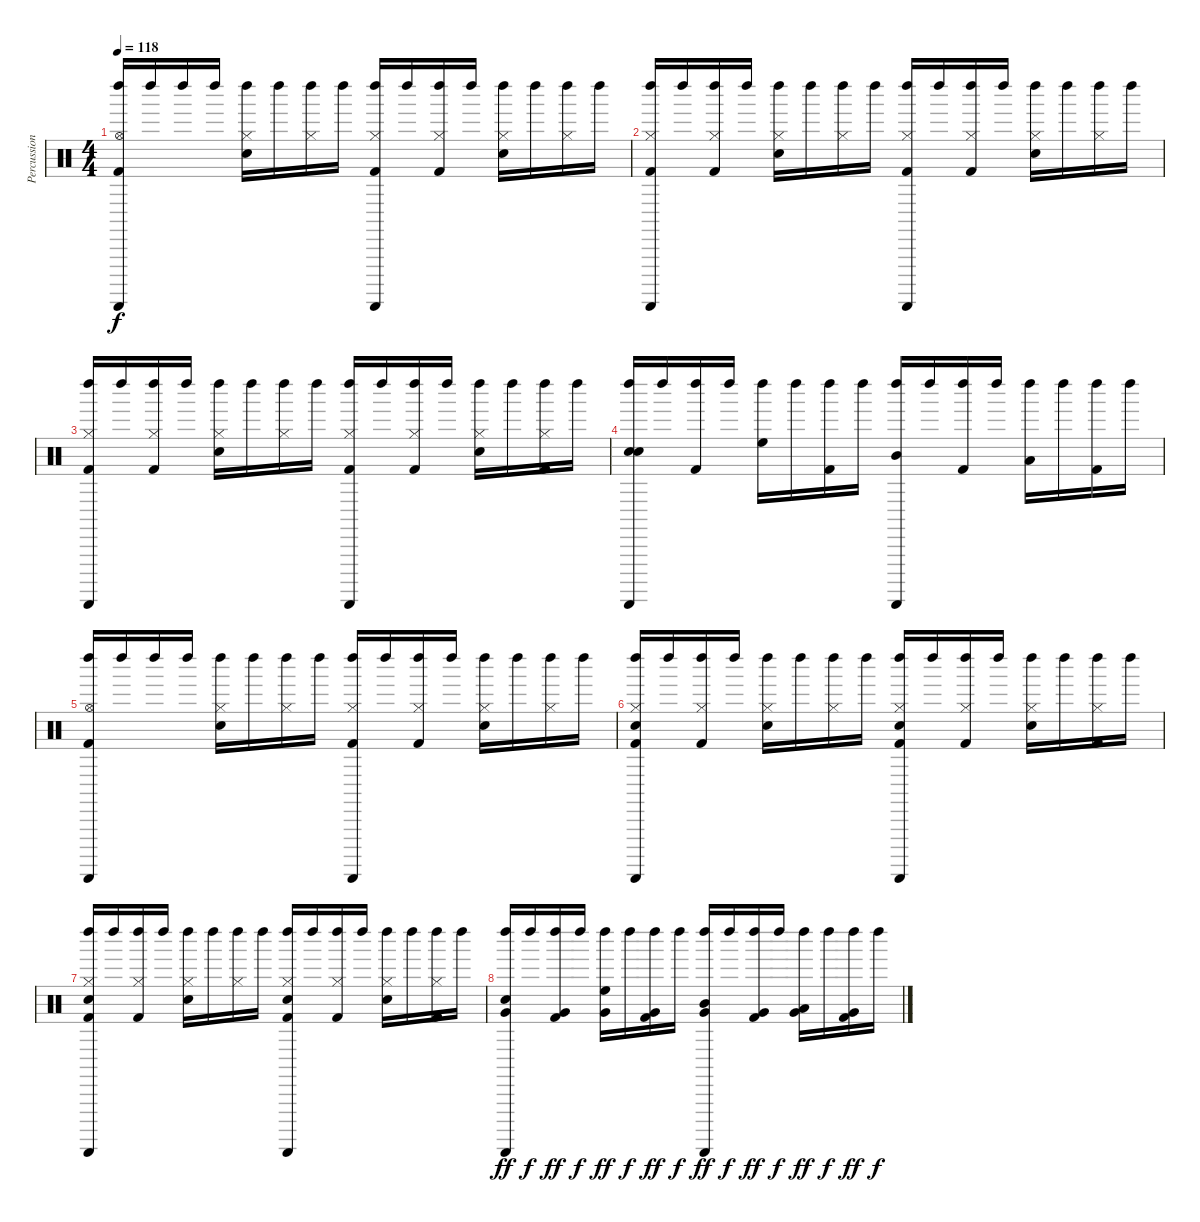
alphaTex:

\track ("Percussions" "Percussion") {instrument percussion}
\staff {score}
\articulation defaults
\ts (4 4)
\tempo 118
\clef neutral
\ks c
("Guiro (scrap-return)" "Left Maraca (hit)" "Hi-Hat (open)" "Kick (hit) 2").16{dy f} "Left Maraca (hit)".16 "Left Maraca (hit)".16 "Left Maraca (hit)".16 ("Left Maraca (hit)" "Hi-Hat (closed)" "Snare (hit) 2").16 "Left Maraca (hit)".16 ("Left Maraca (hit)" "Hi-Hat (closed)").16 "Left Maraca (hit)".16 ("Guiro (scrap-return)" "Left Maraca (hit)" "Hi-Hat (closed)" "Kick (hit) 2").16 "Left Maraca (hit)".16 ("Left Maraca (hit)" "Hi-Hat (closed)" "Kick (hit) 2").16 "Left Maraca (hit)".16 ("Left Maraca (hit)" "Hi-Hat (closed)" "Snare (hit) 2").16 "Left Maraca (hit)".16 ("Left Maraca (hit)" "Hi-Hat (closed)").16 "Left Maraca (hit)".16 |
("Guiro (scrap-return)" "Left Maraca (hit)" "Hi-Hat (closed)" "Kick (hit) 2").16 "Left Maraca (hit)".16 ("Left Maraca (hit)" "Hi-Hat (closed)" "Kick (hit) 2").16 "Left Maraca (hit)".16 ("Left Maraca (hit)" "Hi-Hat (closed)" "Snare (hit) 2").16 "Left Maraca (hit)".16 ("Left Maraca (hit)" "Hi-Hat (closed)").16 "Left Maraca (hit)".16 ("Guiro (scrap-return)" "Left Maraca (hit)" "Hi-Hat (closed)" "Kick (hit) 2").16 "Left Maraca (hit)".16 ("Left Maraca (hit)" "Hi-Hat (closed)" "Kick (hit) 2").16 "Left Maraca (hit)".16 ("Left Maraca (hit)" "Hi-Hat (closed)" "Snare (hit) 2").16 "Left Maraca (hit)".16 ("Left Maraca (hit)" "Hi-Hat (closed)").16 "Left Maraca (hit)".16 |
("Guiro (scrap-return)" "Left Maraca (hit)" "Hi-Hat (closed)" "Kick (hit) 2").16 "Left Maraca (hit)".16 ("Left Maraca (hit)" "Hi-Hat (closed)" "Kick (hit) 2").16 "Left Maraca (hit)".16 ("Left Maraca (hit)" "Hi-Hat (closed)" "Snare (hit) 2").16 "Left Maraca (hit)".16 ("Left Maraca (hit)" "Hi-Hat (closed)").16 "Left Maraca (hit)".16 ("Guiro (scrap-return)" "Left Maraca (hit)" "Hi-Hat (closed)" "Kick (hit) 2").16 "Left Maraca (hit)".16 ("Left Maraca (hit)" "Hi-Hat (closed)" "Kick (hit) 2").16 "Left Maraca (hit)".16 ("Left Maraca (hit)" "Hi-Hat (closed)" "Snare (hit) 2").16 "Left Maraca (hit)".16 ("Left Maraca (hit)" "Hi-Hat (closed)" "Kick (hit) 2").16 "Left Maraca (hit)".16 |
("Guiro (scrap-return)" "Left Maraca (hit)" "Snare (hit) 2" "Snare (hit) 2").16 "Left Maraca (hit)".16 ("Left Maraca (hit)" "Kick (hit) 2").16 "Left Maraca (hit)".16 ("Left Maraca (hit)" "High Floor Tom (hit)").16 "Left Maraca (hit)".16 ("Left Maraca (hit)" "Kick (hit) 2").16 "Left Maraca (hit)".16 ("Guiro (scrap-return)" "Left Maraca (hit)" "Mid Tom (hit)").16 "Left Maraca (hit)".16 ("Left Maraca (hit)" "Kick (hit) 2").16 "Left Maraca (hit)".16 ("Left Maraca (hit)" "Low Tom (hit)").16 "Left Maraca (hit)".16 ("Left Maraca (hit)" "Kick (hit) 2").16 "Left Maraca (hit)".16 |
("Guiro (scrap-return)" "Left Maraca (hit)" "Hi-Hat (open)" "Kick (hit) 2").16 "Left Maraca (hit)".16 "Left Maraca (hit)".16 "Left Maraca (hit)".16 ("Left Maraca (hit)" "Hi-Hat (closed)" "Snare (hit) 2").16 "Left Maraca (hit)".16 ("Left Maraca (hit)" "Hi-Hat (closed)").16 "Left Maraca (hit)".16 ("Guiro (scrap-return)" "Left Maraca (hit)" "Hi-Hat (closed)" "Kick (hit) 2").16 "Left Maraca (hit)".16 ("Left Maraca (hit)" "Hi-Hat (closed)" "Kick (hit) 2").16 "Left Maraca (hit)".16 ("Left Maraca (hit)" "Hi-Hat (closed)" "Snare (hit) 2").16 "Left Maraca (hit)".16 ("Left Maraca (hit)" "Hi-Hat (closed)").16 "Left Maraca (hit)".16 |
("Guiro (scrap-return)" "Left Maraca (hit)" "Hi-Hat (closed)" "Snare (hit) 2" "Kick (hit) 2").16 "Left Maraca (hit)".16 ("Left Maraca (hit)" "Hi-Hat (closed)" "Kick (hit) 2").16 "Left Maraca (hit)".16 ("Left Maraca (hit)" "Hi-Hat (closed)" "Snare (hit) 2").16 "Left Maraca (hit)".16 ("Left Maraca (hit)" "Hi-Hat (closed)").16 "Left Maraca (hit)".16 ("Guiro (scrap-return)" "Left Maraca (hit)" "Hi-Hat (closed)" "Snare (hit) 2" "Kick (hit) 2").16 "Left Maraca (hit)".16 ("Left Maraca (hit)" "Hi-Hat (closed)" "Kick (hit) 2").16 "Left Maraca (hit)".16 ("Left Maraca (hit)" "Hi-Hat (closed)" "Snare (hit) 2").16 "Left Maraca (hit)".16 ("Left Maraca (hit)" "Hi-Hat (closed)" "Kick (hit) 2").16 "Left Maraca (hit)".16 |
("Guiro (scrap-return)" "Left Maraca (hit)" "Hi-Hat (closed)" "Snare (hit) 2" "Kick (hit) 2").16 "Left Maraca (hit)".16 ("Left Maraca (hit)" "Hi-Hat (closed)" "Kick (hit) 2").16 "Left Maraca (hit)".16 ("Left Maraca (hit)" "Hi-Hat (closed)" "Snare (hit) 2").16 "Left Maraca (hit)".16 ("Left Maraca (hit)" "Hi-Hat (closed)").16 "Left Maraca (hit)".16 ("Guiro (scrap-return)" "Left Maraca (hit)" "Hi-Hat (closed)" "Snare (hit) 2" "Kick (hit) 2").16 "Left Maraca (hit)".16 ("Left Maraca (hit)" "Hi-Hat (closed)" "Kick (hit) 2").16 "Left Maraca (hit)".16 ("Left Maraca (hit)" "Hi-Hat (closed)" "Snare (hit) 2").16 "Left Maraca (hit)".16 ("Left Maraca (hit)" "Hi-Hat (closed)" "Kick (hit) 2").16 "Left Maraca (hit)".16 |
("Guiro (scrap-return)" "Left Maraca (hit)" "Snare (hit) 2" "Very Low Tom (hit)").16{dy ff} "Left Maraca (hit)".16{dy f} ("Left Maraca (hit)" "Very Low Tom (hit)" "Kick (hit) 2").16{dy ff} "Left Maraca (hit)".16{dy f} ("Left Maraca (hit)" "High Floor Tom (hit)" "Very Low Tom (hit)").16{dy ff} "Left Maraca (hit)".16{dy f} ("Left Maraca (hit)" "Very Low Tom (hit)" "Kick (hit) 2").16{dy ff} "Left Maraca (hit)".16{dy f} ("Guiro (scrap-return)" "Left Maraca (hit)" "Mid Tom (hit)" "Very Low Tom (hit)").16{dy ff} "Left Maraca (hit)".16{dy f} ("Left Maraca (hit)" "Very Low Tom (hit)" "Kick (hit) 2").16{dy ff} "Left Maraca (hit)".16{dy f} ("Left Maraca (hit)" "Low Tom (hit)" "Very Low Tom (hit)").16{dy ff} "Left Maraca (hit)".16{dy f} ("Left Maraca (hit)" "Very Low Tom (hit)" "Kick (hit) 2").16{dy ff} "Left Maraca (hit)".16{dy f}
